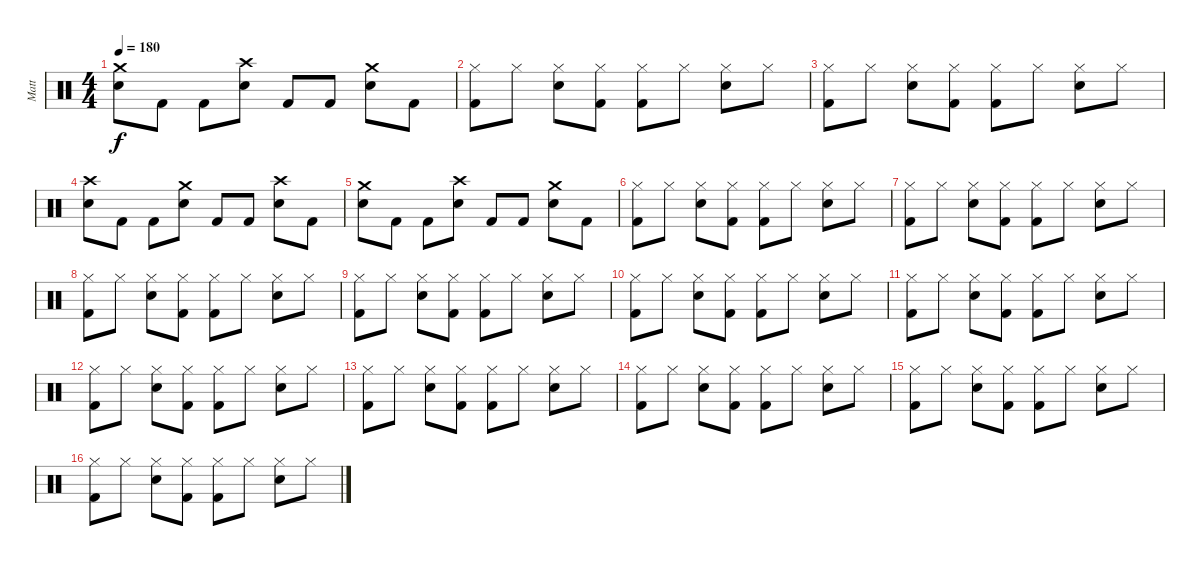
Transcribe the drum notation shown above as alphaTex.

\track ("Matt" "Matt") {instrument percussion}
\staff {score}
\articulation defaults
\ts (4 4)
\tempo 180
\clef neutral
\ks c
("Crash medium (hit)" "Snare (hit) 2").8{dy f} "Kick (hit) 2".8 "Kick (hit) 2".8 ("Crash high (hit)" "Snare (hit) 2").8 "Kick (hit) 2".8 "Kick (hit) 2".8 ("Crash medium (hit)" "Snare (hit) 2").8 "Kick (hit) 2".8 |
("Hi-Hat (closed)" "Kick (hit) 2").8 "Hi-Hat (closed)".8 ("Hi-Hat (closed)" "Snare (hit) 2").8 ("Hi-Hat (closed)" "Kick (hit) 2").8 ("Hi-Hat (closed)" "Kick (hit) 2").8 "Hi-Hat (closed)".8 ("Hi-Hat (closed)" "Snare (hit) 2").8 "Hi-Hat (closed)".8 |
("Hi-Hat (closed)" "Kick (hit) 2").8 "Hi-Hat (closed)".8 ("Hi-Hat (closed)" "Snare (hit) 2").8 ("Hi-Hat (closed)" "Kick (hit) 2").8 ("Hi-Hat (closed)" "Kick (hit) 2").8 "Hi-Hat (closed)".8 ("Hi-Hat (closed)" "Snare (hit) 2").8 "Hi-Hat (closed)".8 |
("Crash high (hit)" "Snare (hit) 2").8 "Kick (hit) 2".8 "Kick (hit) 2".8 ("Crash medium (hit)" "Snare (hit) 2").8 "Kick (hit) 2".8 "Kick (hit) 2".8 ("Crash high (hit)" "Snare (hit) 2").8 "Kick (hit) 2".8 |
("Crash medium (hit)" "Snare (hit) 2").8 "Kick (hit) 2".8 "Kick (hit) 2".8 ("Crash high (hit)" "Snare (hit) 2").8 "Kick (hit) 2".8 "Kick (hit) 2".8 ("Crash medium (hit)" "Snare (hit) 2").8 "Kick (hit) 2".8 |
("Hi-Hat (closed)" "Kick (hit) 2").8 "Hi-Hat (closed)".8 ("Hi-Hat (closed)" "Snare (hit) 2").8 ("Hi-Hat (closed)" "Kick (hit) 2").8 ("Hi-Hat (closed)" "Kick (hit) 2").8 "Hi-Hat (closed)".8 ("Hi-Hat (closed)" "Snare (hit) 2").8 "Hi-Hat (closed)".8 |
("Hi-Hat (closed)" "Kick (hit) 2").8 "Hi-Hat (closed)".8 ("Hi-Hat (closed)" "Snare (hit) 2").8 ("Hi-Hat (closed)" "Kick (hit) 2").8 ("Hi-Hat (closed)" "Kick (hit) 2").8 "Hi-Hat (closed)".8 ("Hi-Hat (closed)" "Snare (hit) 2").8 "Hi-Hat (closed)".8 |
("Hi-Hat (closed)" "Kick (hit) 2").8 "Hi-Hat (closed)".8 ("Hi-Hat (closed)" "Snare (hit) 2").8 ("Hi-Hat (closed)" "Kick (hit) 2").8 ("Hi-Hat (closed)" "Kick (hit) 2").8 "Hi-Hat (closed)".8 ("Hi-Hat (closed)" "Snare (hit) 2").8 "Hi-Hat (closed)".8 |
("Hi-Hat (closed)" "Kick (hit) 2").8 "Hi-Hat (closed)".8 ("Hi-Hat (closed)" "Snare (hit) 2").8 ("Hi-Hat (closed)" "Kick (hit) 2").8 ("Hi-Hat (closed)" "Kick (hit) 2").8 "Hi-Hat (closed)".8 ("Hi-Hat (closed)" "Snare (hit) 2").8 "Hi-Hat (closed)".8 |
("Hi-Hat (closed)" "Kick (hit) 2").8 "Hi-Hat (closed)".8 ("Hi-Hat (closed)" "Snare (hit) 2").8 ("Hi-Hat (closed)" "Kick (hit) 2").8 ("Hi-Hat (closed)" "Kick (hit) 2").8 "Hi-Hat (closed)".8 ("Hi-Hat (closed)" "Snare (hit) 2").8 "Hi-Hat (closed)".8 |
("Hi-Hat (closed)" "Kick (hit) 2").8 "Hi-Hat (closed)".8 ("Hi-Hat (closed)" "Snare (hit) 2").8 ("Hi-Hat (closed)" "Kick (hit) 2").8 ("Hi-Hat (closed)" "Kick (hit) 2").8 "Hi-Hat (closed)".8 ("Hi-Hat (closed)" "Snare (hit) 2").8 "Hi-Hat (closed)".8 |
("Hi-Hat (closed)" "Kick (hit) 2").8 "Hi-Hat (closed)".8 ("Hi-Hat (closed)" "Snare (hit) 2").8 ("Hi-Hat (closed)" "Kick (hit) 2").8 ("Hi-Hat (closed)" "Kick (hit) 2").8 "Hi-Hat (closed)".8 ("Hi-Hat (closed)" "Snare (hit) 2").8 "Hi-Hat (closed)".8 |
("Hi-Hat (closed)" "Kick (hit) 2").8 "Hi-Hat (closed)".8 ("Hi-Hat (closed)" "Snare (hit) 2").8 ("Hi-Hat (closed)" "Kick (hit) 2").8 ("Hi-Hat (closed)" "Kick (hit) 2").8 "Hi-Hat (closed)".8 ("Hi-Hat (closed)" "Snare (hit) 2").8 "Hi-Hat (closed)".8 |
("Hi-Hat (closed)" "Kick (hit) 2").8 "Hi-Hat (closed)".8 ("Hi-Hat (closed)" "Snare (hit) 2").8 ("Hi-Hat (closed)" "Kick (hit) 2").8 ("Hi-Hat (closed)" "Kick (hit) 2").8 "Hi-Hat (closed)".8 ("Hi-Hat (closed)" "Snare (hit) 2").8 "Hi-Hat (closed)".8 |
("Hi-Hat (closed)" "Kick (hit) 2").8 "Hi-Hat (closed)".8 ("Hi-Hat (closed)" "Snare (hit) 2").8 ("Hi-Hat (closed)" "Kick (hit) 2").8 ("Hi-Hat (closed)" "Kick (hit) 2").8 "Hi-Hat (closed)".8 ("Hi-Hat (closed)" "Snare (hit) 2").8 "Hi-Hat (closed)".8 |
("Hi-Hat (closed)" "Kick (hit) 2").8 "Hi-Hat (closed)".8 ("Hi-Hat (closed)" "Snare (hit) 2").8 ("Hi-Hat (closed)" "Kick (hit) 2").8 ("Hi-Hat (closed)" "Kick (hit) 2").8 "Hi-Hat (closed)".8 ("Hi-Hat (closed)" "Snare (hit) 2").8 "Hi-Hat (closed)".8
